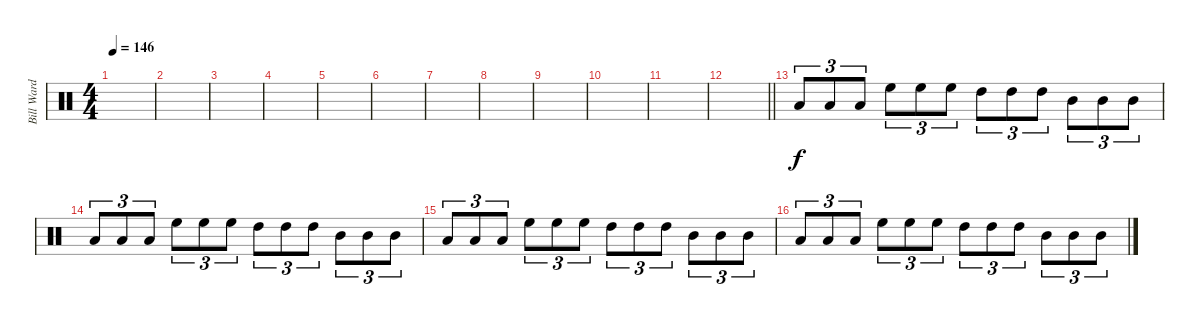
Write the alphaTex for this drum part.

\track ("Bill Ward - Drum Fills" "Bill Ward ") {instrument percussion}
\staff {score}
\articulation defaults
\ts (4 4)
\tempo 146
\clef neutral
\ks c
|
|
|
|
|
|
|
|
|
|
|
\barLineRight lightlight
|
"Low Tom (hit)".8{tu (3 2)} "Low Tom (hit)".8{tu (3 2)} "Low Tom (hit)".8{tu (3 2)} "High Floor Tom (hit)".8{tu (3 2)} "High Floor Tom (hit)".8{tu (3 2)} "High Floor Tom (hit)".8{tu (3 2)} "High Tom (hit)".8{tu (3 2)} "High Tom (hit)".8{tu (3 2)} "High Tom (hit)".8{tu (3 2)} "Mid Tom (hit)".8{tu (3 2)} "Mid Tom (hit)".8{tu (3 2)} "Mid Tom (hit)".8{tu (3 2)} |
"Low Tom (hit)".8{tu (3 2)} "Low Tom (hit)".8{tu (3 2)} "Low Tom (hit)".8{tu (3 2)} "High Floor Tom (hit)".8{tu (3 2)} "High Floor Tom (hit)".8{tu (3 2)} "High Floor Tom (hit)".8{tu (3 2)} "High Tom (hit)".8{tu (3 2)} "High Tom (hit)".8{tu (3 2)} "High Tom (hit)".8{tu (3 2)} "Mid Tom (hit)".8{tu (3 2)} "Mid Tom (hit)".8{tu (3 2)} "Mid Tom (hit)".8{tu (3 2)} |
"Low Tom (hit)".8{tu (3 2)} "Low Tom (hit)".8{tu (3 2)} "Low Tom (hit)".8{tu (3 2)} "High Floor Tom (hit)".8{tu (3 2)} "High Floor Tom (hit)".8{tu (3 2)} "High Floor Tom (hit)".8{tu (3 2)} "High Tom (hit)".8{tu (3 2)} "High Tom (hit)".8{tu (3 2)} "High Tom (hit)".8{tu (3 2)} "Mid Tom (hit)".8{tu (3 2)} "Mid Tom (hit)".8{tu (3 2)} "Mid Tom (hit)".8{tu (3 2)} |
"Low Tom (hit)".8{tu (3 2)} "Low Tom (hit)".8{tu (3 2)} "Low Tom (hit)".8{tu (3 2)} "High Floor Tom (hit)".8{tu (3 2)} "High Floor Tom (hit)".8{tu (3 2)} "High Floor Tom (hit)".8{tu (3 2)} "High Tom (hit)".8{tu (3 2)} "High Tom (hit)".8{tu (3 2)} "High Tom (hit)".8{tu (3 2)} "Mid Tom (hit)".8{tu (3 2)} "Mid Tom (hit)".8{tu (3 2)} "Mid Tom (hit)".8{tu (3 2)}
